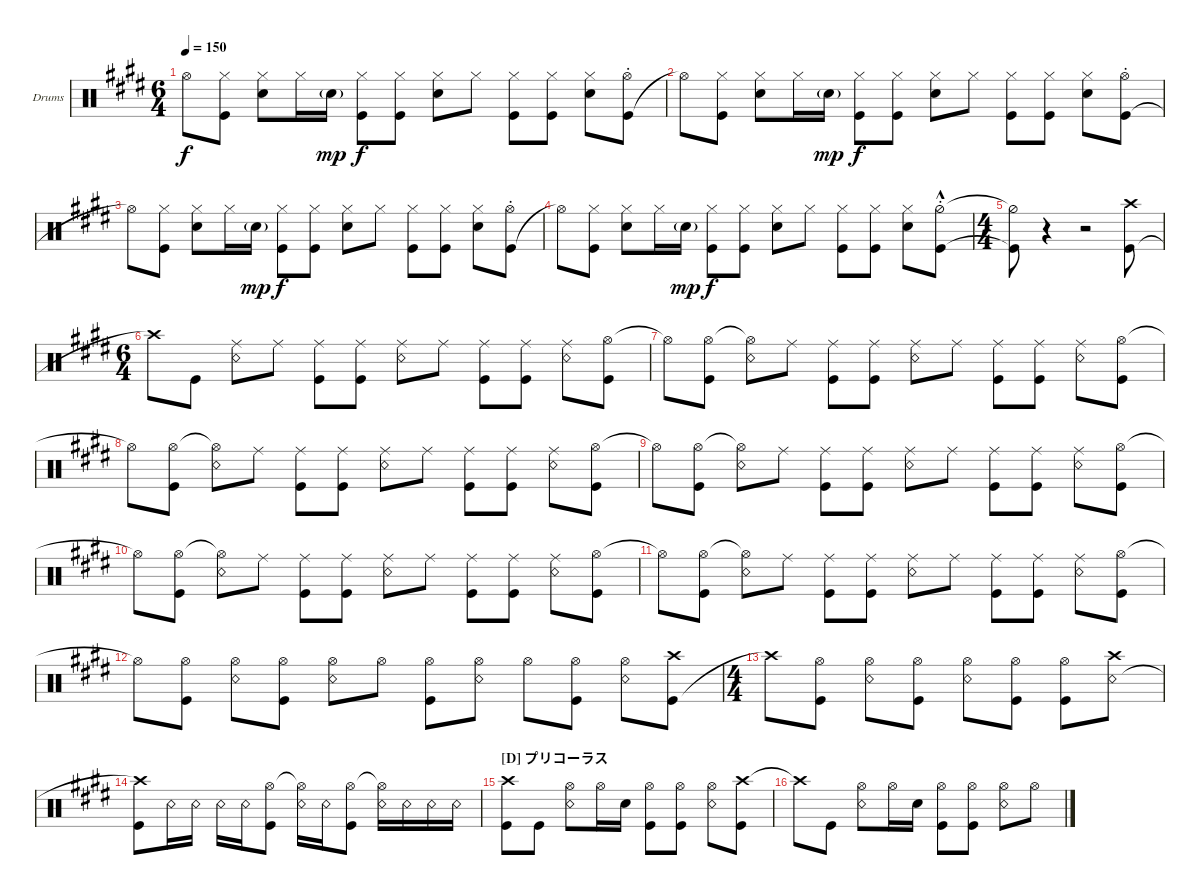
\bracketExtendMode groupsimilarinstruments
\firstSystemTrackNameOrientation horizontal
\otherSystemsTrackNameOrientation horizontal
\track ("Ichigo" "Drums") {instrument percussion}
\staff {score}
\articulation defaults
\ts (6 4)
\tempo 150
\clef neutral
\ks e "Hi-Hat (open)"{t}.8{dy f}
("Hi-Hat (closed)" "Kick (hit)").8 ("Hi-Hat (closed)" "Snare (hit) 2").8 "Hi-Hat (closed)".16 "Snare (hit) 2"{g}.16{dy mp} ("Hi-Hat (closed)" "Kick (hit)").8{dy f} ("Hi-Hat (closed)" "Kick (hit)").8 ("Hi-Hat (closed)" "Snare (hit) 2").8 "Hi-Hat (closed)".8 ("Hi-Hat (closed)" "Kick (hit)").8 ("Hi-Hat (closed)" "Kick (hit)").8 ("Snare (hit) 2" "Hi-Hat (closed)").8 ("Kick (hit)"{st} "Hi-Hat (open)"{st}).8 |
"Hi-Hat (open)"{t}.8 ("Hi-Hat (closed)" "Kick (hit)").8 ("Hi-Hat (closed)" "Snare (hit) 2").8 "Hi-Hat (closed)".16 "Snare (hit) 2"{g}.16{dy mp} ("Hi-Hat (closed)" "Kick (hit)").8{dy f} ("Hi-Hat (closed)" "Kick (hit)").8 ("Hi-Hat (closed)" "Snare (hit) 2").8 "Hi-Hat (closed)".8 ("Hi-Hat (closed)" "Kick (hit)").8 ("Hi-Hat (closed)" "Kick (hit)").8 ("Snare (hit) 2" "Hi-Hat (closed)").8 ("Kick (hit)"{st} "Hi-Hat (open)"{st}).8 |
"Hi-Hat (open)"{t}.8 ("Hi-Hat (closed)" "Kick (hit)").8 ("Hi-Hat (closed)" "Snare (hit) 2").8 "Hi-Hat (closed)".16 "Snare (hit) 2"{g}.16{dy mp} ("Hi-Hat (closed)" "Kick (hit)").8{dy f} ("Hi-Hat (closed)" "Kick (hit)").8 ("Hi-Hat (closed)" "Snare (hit) 2").8 "Hi-Hat (closed)".8 ("Hi-Hat (closed)" "Kick (hit)").8 ("Hi-Hat (closed)" "Kick (hit)").8 ("Snare (hit) 2" "Hi-Hat (closed)").8 ("Kick (hit)"{st} "Hi-Hat (open)"{st}).8 |
"Hi-Hat (open)"{t}.8 ("Hi-Hat (closed)" "Kick (hit)").8 ("Hi-Hat (closed)" "Snare (hit) 2").8 "Hi-Hat (closed)".16 "Snare (hit) 2"{g}.16{dy mp} ("Hi-Hat (closed)" "Kick (hit)").8{dy f} ("Hi-Hat (closed)" "Kick (hit)").8 ("Hi-Hat (closed)" "Snare (hit) 2").8 "Hi-Hat (closed)".8 ("Hi-Hat (closed)" "Kick (hit)").8 ("Hi-Hat (closed)" "Kick (hit)").8 ("Snare (hit) 2" "Hi-Hat (closed)").8 ("Kick (hit)"{hac st} "Hi-Hat (half)"{hac st}).8 |
\ts (4 4)
("Kick (hit)"{t} "Hi-Hat (half)"{t}).8 r.4 r.2 ("Kick (hit)" "Crash high (hit)").8 |
\ts (6 4)
"Crash high (hit)"{t}.8 "Kick (hit)".8 ("Snare (rim shot)" "Ride (middle)").8 "Ride (middle)".8 ("Ride (middle)" "Kick (hit)").8 ("Ride (middle)" "Kick (hit)").8 ("Ride (middle)" "Snare (rim shot)").8 "Ride (middle)".8 ("Ride (middle)" "Kick (hit)").8 ("Ride (middle)" "Kick (hit)").8 ("Snare (rim shot)" "Ride (middle)").8 ("Hi-Hat (open)" "Kick (hit)").8 |
"Hi-Hat (open)"{t}.8 ("Kick (hit)" "Hi-Hat (open)").8 ("Snare (rim shot)" "Hi-Hat (open)"{t}).8 "Ride (middle)".8 ("Ride (middle)" "Kick (hit)").8 ("Ride (middle)" "Kick (hit)").8 ("Ride (middle)" "Snare (rim shot)").8 "Ride (middle)".8 ("Ride (middle)" "Kick (hit)").8 ("Ride (middle)" "Kick (hit)").8 ("Snare (rim shot)" "Ride (middle)").8 ("Hi-Hat (open)" "Kick (hit)").8 |
"Hi-Hat (open)"{t}.8 ("Kick (hit)" "Hi-Hat (open)").8 ("Snare (rim shot)" "Hi-Hat (open)"{t}).8 "Ride (middle)".8 ("Ride (middle)" "Kick (hit)").8 ("Ride (middle)" "Kick (hit)").8 ("Ride (middle)" "Snare (rim shot)").8 "Ride (middle)".8 ("Ride (middle)" "Kick (hit)").8 ("Ride (middle)" "Kick (hit)").8 ("Snare (rim shot)" "Ride (middle)").8 ("Hi-Hat (open)" "Kick (hit)").8 |
"Hi-Hat (open)"{t}.8 ("Kick (hit)" "Hi-Hat (open)").8 ("Snare (rim shot)" "Hi-Hat (open)"{t}).8 "Ride (middle)".8 ("Ride (middle)" "Kick (hit)").8 ("Ride (middle)" "Kick (hit)").8 ("Ride (middle)" "Snare (rim shot)").8 "Ride (middle)".8 ("Ride (middle)" "Kick (hit)").8 ("Ride (middle)" "Kick (hit)").8 ("Snare (rim shot)" "Ride (middle)").8 ("Hi-Hat (open)" "Kick (hit)").8 |
"Hi-Hat (open)"{t}.8 ("Kick (hit)" "Hi-Hat (open)").8 ("Snare (rim shot)" "Hi-Hat (open)"{t}).8 "Ride (middle)".8 ("Ride (middle)" "Kick (hit)").8 ("Ride (middle)" "Kick (hit)").8 ("Ride (middle)" "Snare (rim shot)").8 "Ride (middle)".8 ("Ride (middle)" "Kick (hit)").8 ("Ride (middle)" "Kick (hit)").8 ("Snare (rim shot)" "Ride (middle)").8 ("Hi-Hat (open)" "Kick (hit)").8 |
"Hi-Hat (open)"{t}.8 ("Kick (hit)" "Hi-Hat (open)").8 ("Snare (rim shot)" "Hi-Hat (open)"{t}).8 "Ride (middle)".8 ("Ride (middle)" "Kick (hit)").8 ("Ride (middle)" "Kick (hit)").8 ("Ride (middle)" "Snare (rim shot)").8 "Ride (middle)".8 ("Ride (middle)" "Kick (hit)").8 ("Ride (middle)" "Kick (hit)").8 ("Snare (rim shot)" "Ride (middle)").8 ("Hi-Hat (open)" "Kick (hit)").8 |
"Hi-Hat (open)"{t}.8 ("Kick (hit)" "Hi-Hat (open)").8 ("Snare (rim shot)" "Hi-Hat (open)").8 ("Hi-Hat (open)" "Kick (hit)").8 ("Hi-Hat (open)" "Snare (rim shot)").8 "Hi-Hat (open)".8 ("Hi-Hat (open)" "Kick (hit)").8 ("Hi-Hat (open)" "Snare (rim shot)").8 "Hi-Hat (open)".8 ("Kick (hit)" "Hi-Hat (open)").8 ("Snare (rim shot)" "Hi-Hat (open)").8 ("Kick (hit)" "Crash high (hit)").8 |
\ts (4 4)
"Crash high (hit)"{t}.8 ("Kick (hit)" "Hi-Hat (open)").8 ("Snare (rim shot)" "Hi-Hat (open)").8 ("Hi-Hat (open)" "Kick (hit)").8 ("Hi-Hat (open)" "Snare (rim shot)").8 ("Hi-Hat (open)" "Kick (hit)").8 ("Hi-Hat (open)" "Kick (hit)").8 ("Snare (rim shot)" "Crash high (hit)").8 |
("Crash high (hit)"{t} "Kick (hit)").8 "Snare (rim shot)".16 "Snare (rim shot)".16 "Snare (rim shot)".16 "Snare (rim shot)".16 ("Kick (hit)" "Hi-Hat (open)").8 ("Snare (rim shot)" "Hi-Hat (open)"{t}).16 "Snare (rim shot)".16 ("Kick (hit)" "Hi-Hat (open)").8 ("Snare (rim shot)" "Hi-Hat (open)"{t}).16 "Snare (rim shot)".16 "Snare (rim shot)".16 "Snare (rim shot)".16 |
\section ("D" "プリコーラス")
("Crash high (hit)" "Kick (hit)").8 "Kick (hit)".8 ("Snare (rim shot)" "Hi-Hat (open)").8 "Hi-Hat (open)".16 "Snare (hit) 2".16 ("Hi-Hat (open)" "Kick (hit)").8 ("Hi-Hat (open)" "Kick (hit)").8 ("Hi-Hat (open)" "Snare (rim shot)").8 ("Crash high (hit)" "Kick (hit)").8 |
"Crash high (hit)"{t}.8 "Kick (hit)".8 ("Snare (rim shot)" "Hi-Hat (open)").8 "Hi-Hat (open)".16 "Snare (hit) 2".16 ("Hi-Hat (open)" "Kick (hit)").8 ("Hi-Hat (open)" "Kick (hit)").8 ("Hi-Hat (open)" "Snare (rim shot)").8 "Hi-Hat (open)".8
